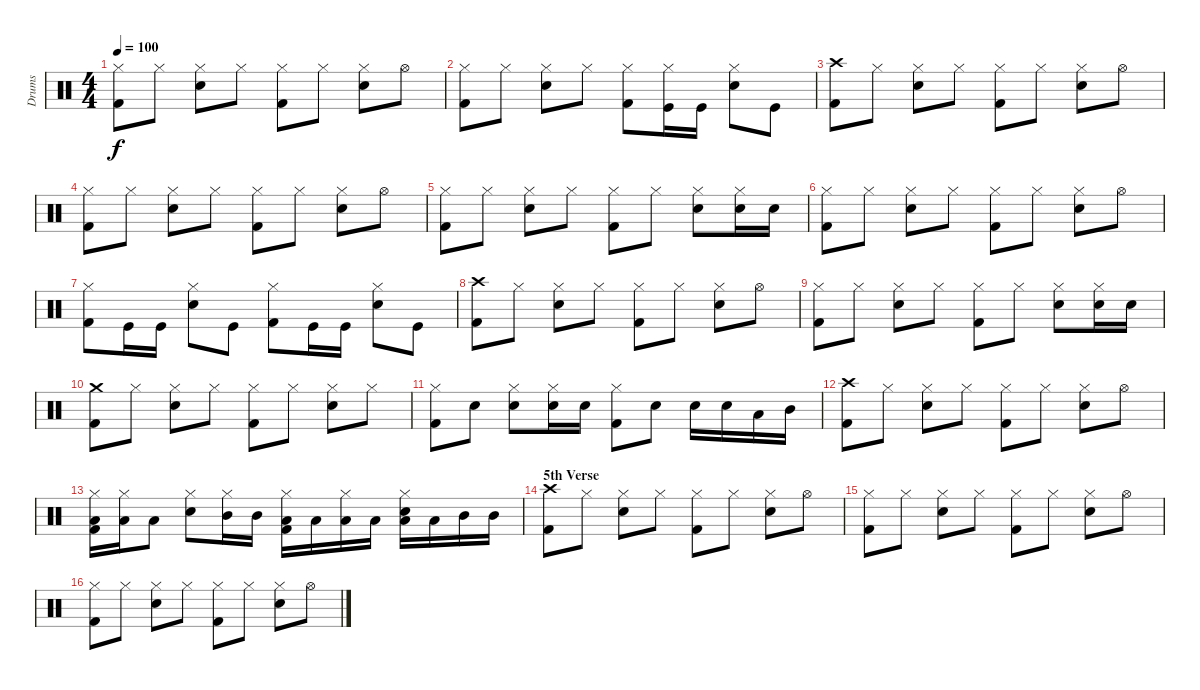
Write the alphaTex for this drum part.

\track ("Drums" "Drums") {instrument percussion}
\staff {score}
\articulation defaults
\ts (4 4)
\tempo 100
\clef neutral
\ks c
("Kick (hit) 2" "Hi-Hat (closed)").8{dy f} "Hi-Hat (closed)".8 ("Snare (hit) 2" "Hi-Hat (closed)").8 "Hi-Hat (closed)".8 ("Kick (hit) 2" "Hi-Hat (closed)").8 "Hi-Hat (closed)".8 ("Snare (hit) 2" "Hi-Hat (closed)").8 "Hi-Hat (open)".8 |
("Kick (hit) 2" "Hi-Hat (closed)").8 "Hi-Hat (closed)".8 ("Snare (hit) 2" "Hi-Hat (closed)").8 "Hi-Hat (closed)".8 ("Kick (hit) 2" "Hi-Hat (closed)").8 ("Kick (hit)" "Hi-Hat (closed)").16 "Kick (hit)".16 ("Snare (hit) 2" "Hi-Hat (closed)").8 "Kick (hit)".8 |
("Kick (hit) 2" "Crash high (hit)").8 "Hi-Hat (closed)".8 ("Snare (hit) 2" "Hi-Hat (closed)").8 "Hi-Hat (closed)".8 ("Kick (hit) 2" "Hi-Hat (closed)").8 "Hi-Hat (closed)".8 ("Snare (hit) 2" "Hi-Hat (closed)").8 "Hi-Hat (open)".8 |
("Kick (hit) 2" "Hi-Hat (closed)").8 "Hi-Hat (closed)".8 ("Snare (hit) 2" "Hi-Hat (closed)").8 "Hi-Hat (closed)".8 ("Kick (hit) 2" "Hi-Hat (closed)").8 "Hi-Hat (closed)".8 ("Snare (hit) 2" "Hi-Hat (closed)").8 "Hi-Hat (open)".8 |
("Kick (hit) 2" "Hi-Hat (closed)").8 "Hi-Hat (closed)".8 ("Snare (hit) 2" "Hi-Hat (closed)").8 "Hi-Hat (closed)".8 ("Kick (hit) 2" "Hi-Hat (closed)").8 "Hi-Hat (closed)".8 ("Snare (hit) 2" "Hi-Hat (closed)").8 ("Snare (hit) 2" "Hi-Hat (closed)").16 "Snare (hit) 2".16 |
("Kick (hit) 2" "Hi-Hat (closed)").8 "Hi-Hat (closed)".8 ("Snare (hit) 2" "Hi-Hat (closed)").8 "Hi-Hat (closed)".8 ("Kick (hit) 2" "Hi-Hat (closed)").8 "Hi-Hat (closed)".8 ("Snare (hit) 2" "Hi-Hat (closed)").8 "Hi-Hat (open)".8 |
("Kick (hit) 2" "Hi-Hat (closed)").8 "Kick (hit)".16 "Kick (hit)".16 ("Snare (hit) 2" "Hi-Hat (closed)").8 "Kick (hit)".8 ("Kick (hit) 2" "Hi-Hat (closed)").8 "Kick (hit)".16 "Kick (hit)".16 ("Snare (hit) 2" "Hi-Hat (closed)").8 "Kick (hit)".8 |
\section ("" "")
("Kick (hit) 2" "Crash high (hit)").8 "Hi-Hat (closed)".8 ("Snare (hit) 2" "Hi-Hat (closed)").8 "Hi-Hat (closed)".8 ("Kick (hit) 2" "Hi-Hat (closed)").8 "Hi-Hat (closed)".8 ("Snare (hit) 2" "Hi-Hat (closed)").8 "Hi-Hat (open)".8 |
("Kick (hit) 2" "Hi-Hat (closed)").8 "Hi-Hat (closed)".8 ("Snare (hit) 2" "Hi-Hat (closed)").8 "Hi-Hat (closed)".8 ("Kick (hit) 2" "Hi-Hat (closed)").8 "Hi-Hat (closed)".8 ("Snare (hit) 2" "Hi-Hat (closed)").8 ("Snare (hit) 2" "Hi-Hat (closed)").16 "Snare (hit) 2".16 |
("Kick (hit) 2" "Crash medium (hit)").8 "Hi-Hat (closed)".8 ("Snare (hit) 2" "Hi-Hat (closed)").8 "Hi-Hat (closed)".8 ("Kick (hit) 2" "Hi-Hat (closed)").8 "Hi-Hat (closed)".8 ("Snare (hit) 2" "Hi-Hat (closed)").8 "Hi-Hat (closed)".8 |
("Kick (hit) 2" "Hi-Hat (closed)").8 "Snare (hit) 2".8 ("Snare (hit) 2" "Hi-Hat (closed)").8 ("Snare (hit) 2" "Hi-Hat (closed)").16 "Snare (hit) 2".16 ("Kick (hit) 2" "Hi-Hat (closed)").8 "Snare (hit) 2".8 "Snare (hit) 2".16 "Snare (hit) 2".16 "Low Tom (hit)".16 "Mid Tom (hit)".16 |
("Kick (hit) 2" "Crash high (hit)").8 "Hi-Hat (closed)".8 ("Snare (hit) 2" "Hi-Hat (closed)").8 "Hi-Hat (closed)".8 ("Kick (hit) 2" "Hi-Hat (closed)").8 "Hi-Hat (closed)".8 ("Snare (hit) 2" "Hi-Hat (closed)").8 "Hi-Hat (open)".8 |
("Low Tom (hit)" "Kick (hit) 2" "Hi-Hat (closed)").16 ("Low Tom (hit)" "Hi-Hat (closed)").16 "Low Tom (hit)".8 ("Snare (hit) 2" "Hi-Hat (closed)").8 ("Mid Tom (hit)" "Hi-Hat (closed)").16 "Mid Tom (hit)".16 ("Low Tom (hit)" "Kick (hit) 2" "Hi-Hat (closed)").16 "Low Tom (hit)".16 ("Low Tom (hit)" "Hi-Hat (closed)").16 "Low Tom (hit)".16 ("Low Tom (hit)" "Snare (hit) 2" "Hi-Hat (closed)").16 "Low Tom (hit)".16 "Mid Tom (hit)".16 "Mid Tom (hit)".16 |
\section ("" "5th Verse")
("Kick (hit) 2" "Crash high (hit)").8 "Hi-Hat (closed)".8 ("Snare (hit) 2" "Hi-Hat (closed)").8 "Hi-Hat (closed)".8 ("Kick (hit) 2" "Hi-Hat (closed)").8 "Hi-Hat (closed)".8 ("Snare (hit) 2" "Hi-Hat (closed)").8 "Hi-Hat (open)".8 |
("Kick (hit) 2" "Hi-Hat (closed)").8 "Hi-Hat (closed)".8 ("Snare (hit) 2" "Hi-Hat (closed)").8 "Hi-Hat (closed)".8 ("Kick (hit) 2" "Hi-Hat (closed)").8 "Hi-Hat (closed)".8 ("Snare (hit) 2" "Hi-Hat (closed)").8 "Hi-Hat (open)".8 |
("Kick (hit) 2" "Hi-Hat (closed)").8 "Hi-Hat (closed)".8 ("Snare (hit) 2" "Hi-Hat (closed)").8 "Hi-Hat (closed)".8 ("Kick (hit) 2" "Hi-Hat (closed)").8 "Hi-Hat (closed)".8 ("Snare (hit) 2" "Hi-Hat (closed)").8 "Hi-Hat (open)".8
